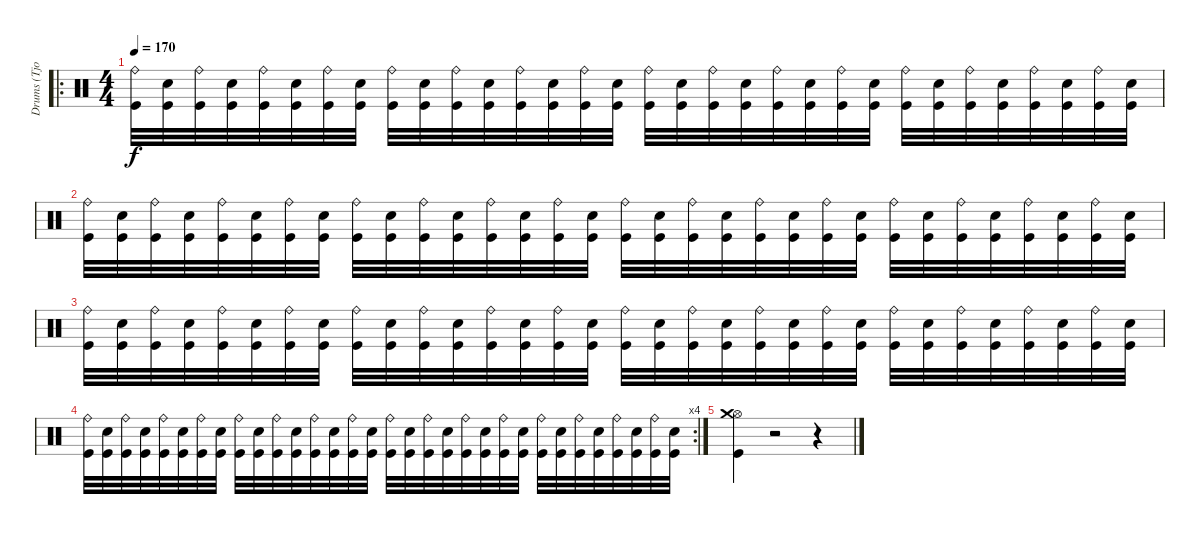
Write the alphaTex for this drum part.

\track ("Drums (Tjodalv)" "Drums (Tjo") {instrument percussion}
\staff {score}
\articulation defaults
\ro
\ts (4 4)
\tempo 170
\clef neutral
\ks c
("Ride (bell)" "Kick (hit)").32{dy f} ("Electric Snare (hit)" "Kick (hit)").32 ("Ride (bell)" "Kick (hit)").32 ("Electric Snare (hit)" "Kick (hit)").32 ("Ride (bell)" "Kick (hit)").32 ("Kick (hit)" "Electric Snare (hit)").32 ("Ride (bell)" "Kick (hit)").32 ("Kick (hit)" "Electric Snare (hit)").32 ("Ride (bell)" "Kick (hit)").32 ("Electric Snare (hit)" "Kick (hit)").32 ("Ride (bell)" "Kick (hit)").32 ("Electric Snare (hit)" "Kick (hit)").32 ("Ride (bell)" "Kick (hit)").32 ("Electric Snare (hit)" "Kick (hit)").32 ("Ride (bell)" "Kick (hit)").32 ("Electric Snare (hit)" "Kick (hit)").32 ("Ride (bell)" "Kick (hit)").32 ("Electric Snare (hit)" "Kick (hit)").32 ("Ride (bell)" "Kick (hit)").32 ("Electric Snare (hit)" "Kick (hit)").32 ("Ride (bell)" "Kick (hit)").32 ("Electric Snare (hit)" "Kick (hit)").32 ("Ride (bell)" "Kick (hit)").32 ("Electric Snare (hit)" "Kick (hit)").32 ("Ride (bell)" "Kick (hit)").32 ("Electric Snare (hit)" "Kick (hit)").32 ("Ride (bell)" "Kick (hit)").32 ("Electric Snare (hit)" "Kick (hit)").32 ("Ride (bell)" "Kick (hit)").32 ("Electric Snare (hit)" "Kick (hit)").32 ("Ride (bell)" "Kick (hit)").32 ("Electric Snare (hit)" "Kick (hit)").32 |
("Ride (bell)" "Kick (hit)").32 ("Electric Snare (hit)" "Kick (hit)").32 ("Ride (bell)" "Kick (hit)").32 ("Electric Snare (hit)" "Kick (hit)").32 ("Ride (bell)" "Kick (hit)").32 ("Kick (hit)" "Electric Snare (hit)").32 ("Ride (bell)" "Kick (hit)").32 ("Kick (hit)" "Electric Snare (hit)").32 ("Ride (bell)" "Kick (hit)").32 ("Electric Snare (hit)" "Kick (hit)").32 ("Ride (bell)" "Kick (hit)").32 ("Electric Snare (hit)" "Kick (hit)").32 ("Ride (bell)" "Kick (hit)").32 ("Electric Snare (hit)" "Kick (hit)").32 ("Ride (bell)" "Kick (hit)").32 ("Electric Snare (hit)" "Kick (hit)").32 ("Ride (bell)" "Kick (hit)").32 ("Electric Snare (hit)" "Kick (hit)").32 ("Ride (bell)" "Kick (hit)").32 ("Electric Snare (hit)" "Kick (hit)").32 ("Ride (bell)" "Kick (hit)").32 ("Electric Snare (hit)" "Kick (hit)").32 ("Ride (bell)" "Kick (hit)").32 ("Electric Snare (hit)" "Kick (hit)").32 ("Ride (bell)" "Kick (hit)").32 ("Electric Snare (hit)" "Kick (hit)").32 ("Ride (bell)" "Kick (hit)").32 ("Electric Snare (hit)" "Kick (hit)").32 ("Ride (bell)" "Kick (hit)").32 ("Electric Snare (hit)" "Kick (hit)").32 ("Ride (bell)" "Kick (hit)").32 ("Electric Snare (hit)" "Kick (hit)").32 |
("Ride (bell)" "Kick (hit)").32 ("Electric Snare (hit)" "Kick (hit)").32 ("Ride (bell)" "Kick (hit)").32 ("Electric Snare (hit)" "Kick (hit)").32 ("Ride (bell)" "Kick (hit)").32 ("Kick (hit)" "Electric Snare (hit)").32 ("Ride (bell)" "Kick (hit)").32 ("Kick (hit)" "Electric Snare (hit)").32 ("Ride (bell)" "Kick (hit)").32 ("Electric Snare (hit)" "Kick (hit)").32 ("Ride (bell)" "Kick (hit)").32 ("Electric Snare (hit)" "Kick (hit)").32 ("Ride (bell)" "Kick (hit)").32 ("Electric Snare (hit)" "Kick (hit)").32 ("Ride (bell)" "Kick (hit)").32 ("Electric Snare (hit)" "Kick (hit)").32 ("Ride (bell)" "Kick (hit)").32 ("Electric Snare (hit)" "Kick (hit)").32 ("Ride (bell)" "Kick (hit)").32 ("Electric Snare (hit)" "Kick (hit)").32 ("Ride (bell)" "Kick (hit)").32 ("Electric Snare (hit)" "Kick (hit)").32 ("Ride (bell)" "Kick (hit)").32 ("Electric Snare (hit)" "Kick (hit)").32 ("Ride (bell)" "Kick (hit)").32 ("Electric Snare (hit)" "Kick (hit)").32 ("Ride (bell)" "Kick (hit)").32 ("Electric Snare (hit)" "Kick (hit)").32 ("Ride (bell)" "Kick (hit)").32 ("Electric Snare (hit)" "Kick (hit)").32 ("Ride (bell)" "Kick (hit)").32 ("Electric Snare (hit)" "Kick (hit)").32 |
\rc 4
("Ride (bell)" "Kick (hit)").32 ("Electric Snare (hit)" "Kick (hit)").32 ("Ride (bell)" "Kick (hit)").32 ("Electric Snare (hit)" "Kick (hit)").32 ("Ride (bell)" "Kick (hit)").32 ("Kick (hit)" "Electric Snare (hit)").32 ("Ride (bell)" "Kick (hit)").32 ("Kick (hit)" "Electric Snare (hit)").32 ("Ride (bell)" "Kick (hit)").32 ("Electric Snare (hit)" "Kick (hit)").32 ("Ride (bell)" "Kick (hit)").32 ("Electric Snare (hit)" "Kick (hit)").32 ("Ride (bell)" "Kick (hit)").32 ("Electric Snare (hit)" "Kick (hit)").32 ("Ride (bell)" "Kick (hit)").32 ("Electric Snare (hit)" "Kick (hit)").32 ("Ride (bell)" "Kick (hit)").32 ("Electric Snare (hit)" "Kick (hit)").32 ("Ride (bell)" "Kick (hit)").32 ("Electric Snare (hit)" "Kick (hit)").32 ("Ride (bell)" "Kick (hit)").32 ("Electric Snare (hit)" "Kick (hit)").32 ("Ride (bell)" "Kick (hit)").32 ("Electric Snare (hit)" "Kick (hit)").32 ("Ride (bell)" "Kick (hit)").32 ("Electric Snare (hit)" "Kick (hit)").32 ("Ride (bell)" "Kick (hit)").32 ("Electric Snare (hit)" "Kick (hit)").32 ("Ride (bell)" "Kick (hit)").32 ("Electric Snare (hit)" "Kick (hit)").32 ("Ride (bell)" "Kick (hit)").32 ("Electric Snare (hit)" "Kick (hit)").32 |
("Hi-Hat (open)" "Kick (hit)" "Crash medium (hit)").4 r.2 r.4
